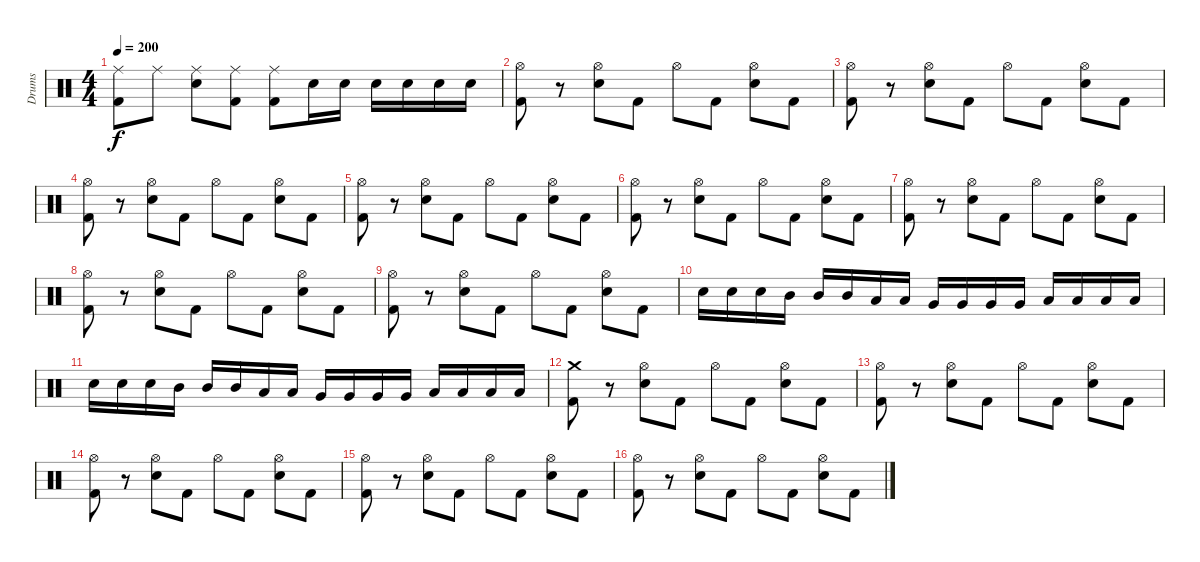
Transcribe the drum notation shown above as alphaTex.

\track ("Drums" "Drums") {instrument percussion}
\staff {score}
\articulation defaults
\ts (4 4)
\tempo 200
\clef neutral
\ks c
("Kick (hit) 2" "Ride (middle)").8{dy f} "Ride (middle)".8 ("Electric Snare (hit)" "Ride (middle)").8 ("Kick (hit) 2" "Ride (middle)").8 ("Kick (hit) 2" "Ride (middle)").8 "Electric Snare (hit)".16 "Electric Snare (hit)".16 "Electric Snare (hit)".16 "Electric Snare (hit)".16 "Electric Snare (hit)".16 "Electric Snare (hit)".16 |
("Kick (hit) 2" "Hi-Hat (open)").8 r.8 ("Electric Snare (hit)" "Hi-Hat (open)").8 "Kick (hit) 2".8 "Hi-Hat (open)".8 "Kick (hit) 2".8 ("Electric Snare (hit)" "Hi-Hat (open)").8 "Kick (hit) 2".8 |
("Kick (hit) 2" "Hi-Hat (open)").8 r.8 ("Electric Snare (hit)" "Hi-Hat (open)").8 "Kick (hit) 2".8 "Hi-Hat (open)".8 "Kick (hit) 2".8 ("Electric Snare (hit)" "Hi-Hat (open)").8 "Kick (hit) 2".8 |
("Kick (hit) 2" "Hi-Hat (open)").8 r.8 ("Electric Snare (hit)" "Hi-Hat (open)").8 "Kick (hit) 2".8 "Hi-Hat (open)".8 "Kick (hit) 2".8 ("Electric Snare (hit)" "Hi-Hat (open)").8 "Kick (hit) 2".8 |
("Kick (hit) 2" "Hi-Hat (open)").8 r.8 ("Electric Snare (hit)" "Hi-Hat (open)").8 "Kick (hit) 2".8 "Hi-Hat (open)".8 "Kick (hit) 2".8 ("Electric Snare (hit)" "Hi-Hat (open)").8 "Kick (hit) 2".8 |
("Kick (hit) 2" "Hi-Hat (open)").8 r.8 ("Electric Snare (hit)" "Hi-Hat (open)").8 "Kick (hit) 2".8 "Hi-Hat (open)".8 "Kick (hit) 2".8 ("Electric Snare (hit)" "Hi-Hat (open)").8 "Kick (hit) 2".8 |
("Kick (hit) 2" "Hi-Hat (open)").8 r.8 ("Electric Snare (hit)" "Hi-Hat (open)").8 "Kick (hit) 2".8 "Hi-Hat (open)".8 "Kick (hit) 2".8 ("Electric Snare (hit)" "Hi-Hat (open)").8 "Kick (hit) 2".8 |
("Kick (hit) 2" "Hi-Hat (open)").8 r.8 ("Electric Snare (hit)" "Hi-Hat (open)").8 "Kick (hit) 2".8 "Hi-Hat (open)".8 "Kick (hit) 2".8 ("Electric Snare (hit)" "Hi-Hat (open)").8 "Kick (hit) 2".8 |
("Kick (hit) 2" "Hi-Hat (open)").8 r.8 ("Electric Snare (hit)" "Hi-Hat (open)").8 "Kick (hit) 2".8 "Hi-Hat (open)".8 "Kick (hit) 2".8 ("Electric Snare (hit)" "Hi-Hat (open)").8 "Kick (hit) 2".8 |
"Electric Snare (hit)".16 "Electric Snare (hit)".16 "Electric Snare (hit)".16 "Mid Tom (hit)".16 "Mid Tom (hit)".16 "Mid Tom (hit)".16 "Low Tom (hit)".16 "Low Tom (hit)".16 "Very Low Tom (hit)".16 "Very Low Tom (hit)".16 "Very Low Tom (hit)".16 "Very Low Tom (hit)".16 "Low Floor Tom (hit)".16 "Low Floor Tom (hit)".16 "Low Floor Tom (hit)".16 "Low Floor Tom (hit)".16 |
"Electric Snare (hit)".16 "Electric Snare (hit)".16 "Electric Snare (hit)".16 "Mid Tom (hit)".16 "Mid Tom (hit)".16 "Mid Tom (hit)".16 "Low Tom (hit)".16 "Low Tom (hit)".16 "Very Low Tom (hit)".16 "Very Low Tom (hit)".16 "Very Low Tom (hit)".16 "Very Low Tom (hit)".16 "Low Floor Tom (hit)".16 "Low Floor Tom (hit)".16 "Low Floor Tom (hit)".16 "Low Floor Tom (hit)".16 |
("Kick (hit) 2" "Crash medium (hit)").8 r.8 ("Electric Snare (hit)" "Hi-Hat (open)").8 "Kick (hit) 2".8 "Hi-Hat (open)".8 "Kick (hit) 2".8 ("Electric Snare (hit)" "Hi-Hat (open)").8 "Kick (hit) 2".8 |
("Kick (hit) 2" "Hi-Hat (open)").8 r.8 ("Electric Snare (hit)" "Hi-Hat (open)").8 "Kick (hit) 2".8 "Hi-Hat (open)".8 "Kick (hit) 2".8 ("Electric Snare (hit)" "Hi-Hat (open)").8 "Kick (hit) 2".8 |
("Kick (hit) 2" "Hi-Hat (open)").8 r.8 ("Electric Snare (hit)" "Hi-Hat (open)").8 "Kick (hit) 2".8 "Hi-Hat (open)".8 "Kick (hit) 2".8 ("Electric Snare (hit)" "Hi-Hat (open)").8 "Kick (hit) 2".8 |
("Kick (hit) 2" "Hi-Hat (open)").8 r.8 ("Electric Snare (hit)" "Hi-Hat (open)").8 "Kick (hit) 2".8 "Hi-Hat (open)".8 "Kick (hit) 2".8 ("Electric Snare (hit)" "Hi-Hat (open)").8 "Kick (hit) 2".8 |
("Kick (hit) 2" "Hi-Hat (open)").8 r.8 ("Electric Snare (hit)" "Hi-Hat (open)").8 "Kick (hit) 2".8 "Hi-Hat (open)".8 "Kick (hit) 2".8 ("Electric Snare (hit)" "Hi-Hat (open)").8 "Kick (hit) 2".8
